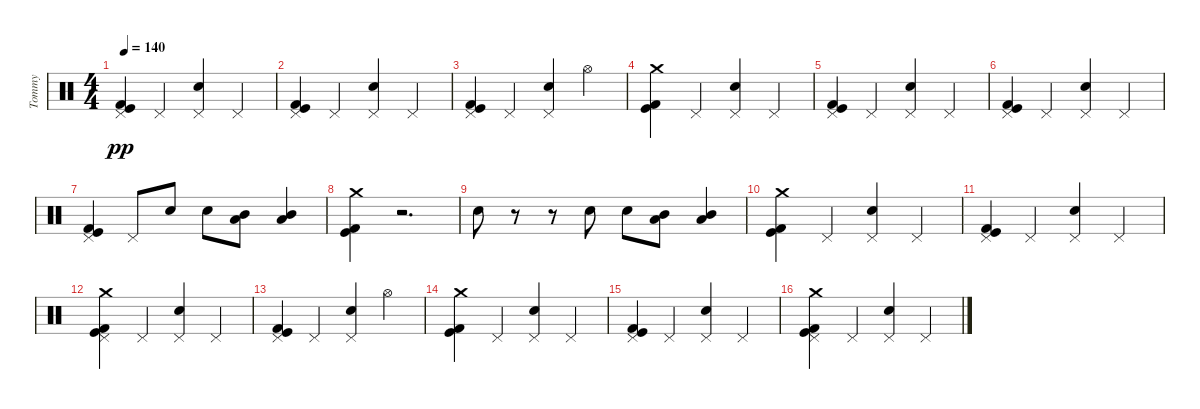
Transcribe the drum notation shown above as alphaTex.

\track ("Tommy" "Tommy") {instrument percussion}
\staff {score}
\articulation defaults
\ts (4 4)
\tempo 140
\clef neutral
\ks c
("Pedal Hi-Hat (hit)" "Kick (hit) 2" "Kick (hit)").4{dy pp} "Pedal Hi-Hat (hit)".4 ("Pedal Hi-Hat (hit)" "Snare (hit) 2").4 "Pedal Hi-Hat (hit)".4 |
("Pedal Hi-Hat (hit)" "Kick (hit) 2" "Kick (hit)").4 "Pedal Hi-Hat (hit)".4 ("Pedal Hi-Hat (hit)" "Snare (hit) 2").4 "Pedal Hi-Hat (hit)".4 |
("Pedal Hi-Hat (hit)" "Kick (hit) 2" "Kick (hit)").4 "Pedal Hi-Hat (hit)".4 ("Pedal Hi-Hat (hit)" "Snare (hit) 2").4 "Hi-Hat (open)".4 |
("Kick (hit) 2" "Kick (hit)" "Crash medium (hit)").4 "Pedal Hi-Hat (hit)".4 ("Pedal Hi-Hat (hit)" "Snare (hit) 2").4 "Pedal Hi-Hat (hit)".4 |
("Pedal Hi-Hat (hit)" "Kick (hit) 2" "Kick (hit)").4 "Pedal Hi-Hat (hit)".4 ("Pedal Hi-Hat (hit)" "Snare (hit) 2").4 "Pedal Hi-Hat (hit)".4 |
("Pedal Hi-Hat (hit)" "Kick (hit) 2" "Kick (hit)").4 "Pedal Hi-Hat (hit)".4 ("Pedal Hi-Hat (hit)" "Snare (hit) 2").4 "Pedal Hi-Hat (hit)".4 |
("Pedal Hi-Hat (hit)" "Kick (hit) 2" "Kick (hit)").4 "Pedal Hi-Hat (hit)".8 "Snare (hit) 2".8 "Snare (hit) 2".8 ("Low Tom (hit)" "Mid Tom (hit)").8 ("Low Tom (hit)" "Mid Tom (hit)").4 |
("Crash medium (hit)" "Kick (hit) 2" "Kick (hit)").4 r.2{d} |
"Snare (hit) 2".8 r.8 r.8 "Snare (hit) 2".8 "Snare (hit) 2".8 ("Low Tom (hit)" "Mid Tom (hit)").8 ("Low Tom (hit)" "Mid Tom (hit)").4 |
("Kick (hit) 2" "Kick (hit)" "Crash medium (hit)").4 "Pedal Hi-Hat (hit)".4 ("Pedal Hi-Hat (hit)" "Snare (hit) 2").4 "Pedal Hi-Hat (hit)".4 |
("Pedal Hi-Hat (hit)" "Kick (hit) 2" "Kick (hit)").4 "Pedal Hi-Hat (hit)".4 ("Pedal Hi-Hat (hit)" "Snare (hit) 2").4 "Pedal Hi-Hat (hit)".4 |
("Crash medium (hit)" "Pedal Hi-Hat (hit)" "Kick (hit) 2" "Kick (hit)").4 "Pedal Hi-Hat (hit)".4 ("Pedal Hi-Hat (hit)" "Snare (hit) 2").4 "Pedal Hi-Hat (hit)".4 |
("Pedal Hi-Hat (hit)" "Kick (hit) 2" "Kick (hit)").4 "Pedal Hi-Hat (hit)".4 ("Pedal Hi-Hat (hit)" "Snare (hit) 2").4 "Hi-Hat (open)".4 |
("Kick (hit) 2" "Kick (hit)" "Crash medium (hit)").4 "Pedal Hi-Hat (hit)".4 ("Pedal Hi-Hat (hit)" "Snare (hit) 2").4 "Pedal Hi-Hat (hit)".4 |
("Pedal Hi-Hat (hit)" "Kick (hit) 2" "Kick (hit)").4 "Pedal Hi-Hat (hit)".4 ("Pedal Hi-Hat (hit)" "Snare (hit) 2").4 "Pedal Hi-Hat (hit)".4 |
("Crash medium (hit)" "Pedal Hi-Hat (hit)" "Kick (hit) 2" "Kick (hit)").4 "Pedal Hi-Hat (hit)".4 ("Pedal Hi-Hat (hit)" "Snare (hit) 2").4 "Pedal Hi-Hat (hit)".4
